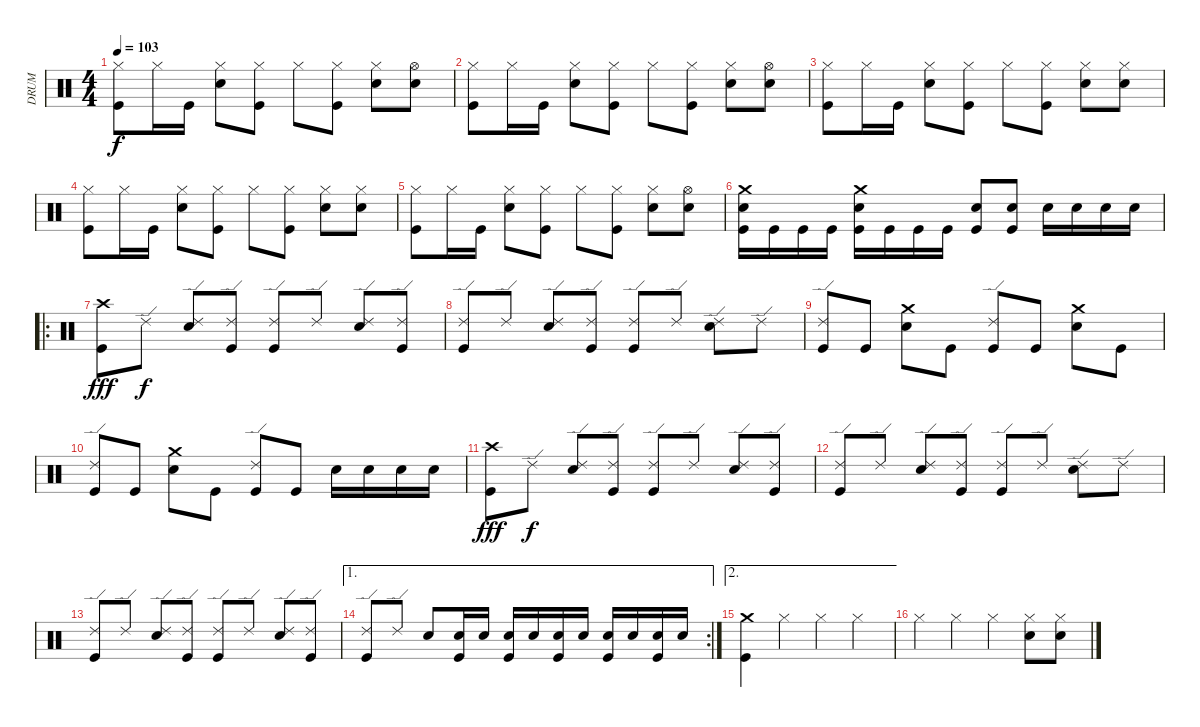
\track ("DRUM" "DRUM") {instrument percussion}
\staff {score}
\articulation defaults
\ts (4 4)
\tempo 103
\clef neutral
\ks c
("Hi-Hat (closed)" "Kick (hit)").8{dy f} "Hi-Hat (closed)".16 "Kick (hit)".16 ("Snare (hit) 2" "Hi-Hat (closed)").8 ("Hi-Hat (closed)" "Kick (hit)").8 "Hi-Hat (closed)".8 ("Hi-Hat (closed)" "Kick (hit)").8 ("Snare (hit) 2" "Hi-Hat (closed)").8 ("Snare (hit) 2" "Hi-Hat (open)").8 |
("Hi-Hat (closed)" "Kick (hit)").8 "Hi-Hat (closed)".16 "Kick (hit)".16 ("Snare (hit) 2" "Hi-Hat (closed)").8 ("Hi-Hat (closed)" "Kick (hit)").8 "Hi-Hat (closed)".8 ("Hi-Hat (closed)" "Kick (hit)").8 ("Snare (hit) 2" "Hi-Hat (closed)").8 ("Snare (hit) 2" "Hi-Hat (open)").8 |
("Hi-Hat (closed)" "Kick (hit)").8 "Hi-Hat (closed)".16 "Kick (hit)".16 ("Snare (hit) 2" "Hi-Hat (closed)").8 ("Hi-Hat (closed)" "Kick (hit)").8 "Hi-Hat (closed)".8 ("Hi-Hat (closed)" "Kick (hit)").8 ("Snare (hit) 2" "Hi-Hat (closed)").8 ("Snare (hit) 2" "Hi-Hat (closed)").8 |
("Hi-Hat (closed)" "Kick (hit)").8 "Hi-Hat (closed)".16 "Kick (hit)".16 ("Snare (hit) 2" "Hi-Hat (closed)").8 ("Hi-Hat (closed)" "Kick (hit)").8 "Hi-Hat (closed)".8 ("Hi-Hat (closed)" "Kick (hit)").8 ("Snare (hit) 2" "Hi-Hat (closed)").8 ("Snare (hit) 2" "Hi-Hat (closed)").8 |
("Hi-Hat (closed)" "Kick (hit)").8 "Hi-Hat (closed)".16 "Kick (hit)".16 ("Snare (hit) 2" "Hi-Hat (closed)").8 ("Hi-Hat (closed)" "Kick (hit)").8 "Hi-Hat (closed)".8 ("Hi-Hat (closed)" "Kick (hit)").8 ("Snare (hit) 2" "Hi-Hat (closed)").8 ("Snare (hit) 2" "Hi-Hat (open)").8 |
("Crash medium (hit)" "Snare (hit) 2" "Kick (hit)").16 "Kick (hit)".16 "Kick (hit)".16 "Kick (hit)".16 ("Crash medium (hit)" "Snare (hit) 2" "Kick (hit)").16 "Kick (hit)".16 "Kick (hit)".16 "Kick (hit)".16 ("Snare (hit) 2" "Kick (hit)").8 ("Snare (hit) 2" "Kick (hit)").8 "Snare (hit) 2".16 "Snare (hit) 2".16 "Snare (hit) 2".16 "Snare (hit) 2".16 |
\ro
("Crash high (hit)" "Kick (hit)").8{dy fff} "Ride (edge) 2".8{dy f} ("Ride (edge) 2" "Snare (hit) 2").8 ("Ride (edge) 2" "Kick (hit)").8 ("Ride (edge) 2" "Kick (hit)").8 "Ride (edge) 2".8 ("Ride (edge) 2" "Snare (hit) 2").8 ("Ride (edge) 2" "Kick (hit)").8 |
("Ride (edge) 2" "Kick (hit)").8 "Ride (edge) 2".8 ("Ride (edge) 2" "Snare (hit) 2").8 ("Ride (edge) 2" "Kick (hit)").8 ("Ride (edge) 2" "Kick (hit)").8 "Ride (edge) 2".8 ("Ride (edge) 2" "Snare (hit) 2").8 "Ride (edge) 2".8 |
("Ride (edge) 2" "Kick (hit)").8 "Kick (hit)".8 ("Crash medium (hit)" "Snare (hit) 2").8 "Kick (hit)".8 ("Ride (edge) 2" "Kick (hit)").8 "Kick (hit)".8 ("Crash medium (hit)" "Snare (hit) 2").8 "Kick (hit)".8 |
("Ride (edge) 2" "Kick (hit)").8 "Kick (hit)".8 ("Crash medium (hit)" "Snare (hit) 2").8 "Kick (hit)".8 ("Ride (edge) 2" "Kick (hit)").8 "Kick (hit)".8 "Snare (hit) 2".16 "Snare (hit) 2".16 "Snare (hit) 2".16 "Snare (hit) 2".16 |
("Crash high (hit)" "Kick (hit)").8{dy fff} "Ride (edge) 2".8{dy f} ("Ride (edge) 2" "Snare (hit) 2").8 ("Ride (edge) 2" "Kick (hit)").8 ("Ride (edge) 2" "Kick (hit)").8 "Ride (edge) 2".8 ("Ride (edge) 2" "Snare (hit) 2").8 ("Ride (edge) 2" "Kick (hit)").8 |
("Ride (edge) 2" "Kick (hit)").8 "Ride (edge) 2".8 ("Ride (edge) 2" "Snare (hit) 2").8 ("Ride (edge) 2" "Kick (hit)").8 ("Ride (edge) 2" "Kick (hit)").8 "Ride (edge) 2".8 ("Ride (edge) 2" "Snare (hit) 2").8 "Ride (edge) 2".8 |
("Ride (edge) 2" "Kick (hit)").8 "Ride (edge) 2".8 ("Ride (edge) 2" "Snare (hit) 2").8 ("Ride (edge) 2" "Kick (hit)").8 ("Ride (edge) 2" "Kick (hit)").8 "Ride (edge) 2".8 ("Ride (edge) 2" "Snare (hit) 2").8 ("Ride (edge) 2" "Kick (hit)").8 |
\ae 1
\rc 2
("Ride (edge) 2" "Kick (hit)").8 "Ride (edge) 2".8 "Snare (hit) 2".8 ("Snare (hit) 2" "Kick (hit)").16 "Snare (hit) 2".16 ("Snare (hit) 2" "Kick (hit)").16 "Snare (hit) 2".16 ("Snare (hit) 2" "Kick (hit)").16 "Snare (hit) 2".16 ("Snare (hit) 2" "Kick (hit)").16 "Snare (hit) 2".16 ("Snare (hit) 2" "Kick (hit)").16 "Snare (hit) 2".16 |
\ae 2
("Crash medium (hit)" "Kick (hit)").4 "Hi-Hat (closed)".4 "Hi-Hat (closed)".4 "Hi-Hat (closed)".4 |
"Hi-Hat (closed)".4 "Hi-Hat (closed)".4 "Hi-Hat (closed)".4 ("Snare (hit) 2" "Hi-Hat (closed)").8 ("Snare (hit) 2" "Hi-Hat (closed)").8
